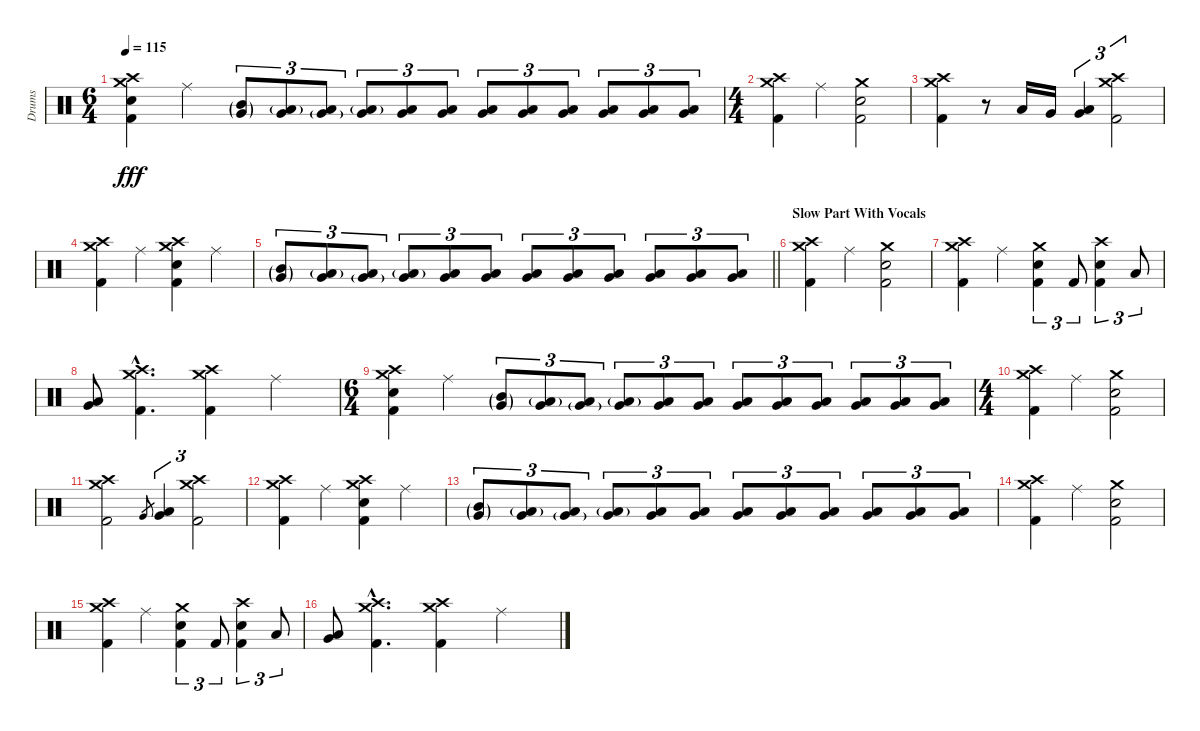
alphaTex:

\track ("Drums" "Drums") {instrument percussion}
\staff {score}
\articulation defaults
\ts (6 4)
\tempo 115
\clef neutral
\ks c
("Crash high (hit)" "Crash medium (hit)" "Electric Snare (hit)" "Kick (hit) 2").4{dy fff} "Ride (middle)".4 ("Mid Tom (hit)"{g} "Very Low Tom (hit)"{g}).8{tu (3 2)} ("Low Tom (hit)"{g} "Very Low Tom (hit)").8{tu (3 2)} ("Low Tom (hit)" "Very Low Tom (hit)"{g}).8{tu (3 2)} ("Low Tom (hit)"{g} "Very Low Tom (hit)").8{tu (3 2)} ("Low Tom (hit)" "Very Low Tom (hit)").8{tu (3 2)} ("Low Tom (hit)" "Very Low Tom (hit)").8{tu (3 2)} ("Low Tom (hit)" "Very Low Tom (hit)").8{tu (3 2)} ("Low Tom (hit)" "Very Low Tom (hit)").8{tu (3 2)} ("Low Tom (hit)" "Very Low Tom (hit)").8{tu (3 2)} ("Low Tom (hit)" "Very Low Tom (hit)").8{tu (3 2)} ("Low Tom (hit)" "Very Low Tom (hit)").8{tu (3 2)} ("Low Tom (hit)" "Very Low Tom (hit)").8{tu (3 2)} |
\ts (4 4)
("Crash high (hit)" "Crash medium (hit)" "Kick (hit) 2").4 "Ride (middle)".4 ("Crash medium (hit)" "Electric Snare (hit)" "Kick (hit) 2").2 |
("Crash high (hit)" "Crash medium (hit)" "Kick (hit) 2").4 r.8 "Low Tom (hit)".16 "Very Low Tom (hit)".16 ("Very Low Tom (hit)" "Low Tom (hit)").4{tu (3 2)} ("Crash high (hit)" "Crash medium (hit)" "Kick (hit) 2").2{tu (3 2)} |
("Crash high (hit)" "Crash medium (hit)" "Kick (hit) 2").4 "Ride (middle)".4 ("Crash high (hit)" "Crash medium (hit)" "Electric Snare (hit)" "Kick (hit) 2").4 "Ride (middle)".4 |
\barLineRight lightlight
("Mid Tom (hit)"{g} "Very Low Tom (hit)"{g}).8{tu (3 2)} ("Low Tom (hit)"{g} "Very Low Tom (hit)").8{tu (3 2)} ("Low Tom (hit)" "Very Low Tom (hit)"{g}).8{tu (3 2)} ("Low Tom (hit)"{g} "Very Low Tom (hit)").8{tu (3 2)} ("Low Tom (hit)" "Very Low Tom (hit)").8{tu (3 2)} ("Low Tom (hit)" "Very Low Tom (hit)").8{tu (3 2)} ("Low Tom (hit)" "Very Low Tom (hit)").8{tu (3 2)} ("Low Tom (hit)" "Very Low Tom (hit)").8{tu (3 2)} ("Low Tom (hit)" "Very Low Tom (hit)").8{tu (3 2)} ("Low Tom (hit)" "Very Low Tom (hit)").8{tu (3 2)} ("Low Tom (hit)" "Very Low Tom (hit)").8{tu (3 2)} ("Low Tom (hit)" "Very Low Tom (hit)").8{tu (3 2)} |
\section ("" "Slow Part With Vocals")
("Crash high (hit)" "Crash medium (hit)" "Kick (hit) 2").4 "Ride (middle)".4 ("Crash medium (hit)" "Electric Snare (hit)" "Kick (hit) 2").2 |
("Crash high (hit)" "Crash medium (hit)" "Kick (hit) 2").4 "Ride (middle)".4 ("Crash medium (hit)" "Electric Snare (hit)" "Kick (hit) 2").4{tu (3 2)} "Kick (hit) 2".8{tu (3 2)} ("Crash high (hit)" "Electric Snare (hit)" "Kick (hit) 2").4{tu (3 2)} "Low Tom (hit)".8{tu (3 2)} |
("Low Floor Tom (hit)" "Very Low Tom (hit)").8 ("Crash high (hit)"{hac} "Crash medium (hit)"{hac} "Kick (hit) 2"{hac}).4{d} ("Crash high (hit)" "Crash medium (hit)" "Kick (hit) 2").4 "Ride (middle)".4 |
\ts (6 4)
("Crash high (hit)" "Crash medium (hit)" "Electric Snare (hit)" "Kick (hit) 2").4 "Ride (middle)".4 ("Mid Tom (hit)"{g} "Very Low Tom (hit)"{g}).8{tu (3 2)} ("Low Tom (hit)"{g} "Very Low Tom (hit)").8{tu (3 2)} ("Low Tom (hit)" "Very Low Tom (hit)"{g}).8{tu (3 2)} ("Low Tom (hit)"{g} "Very Low Tom (hit)").8{tu (3 2)} ("Low Tom (hit)" "Very Low Tom (hit)").8{tu (3 2)} ("Low Tom (hit)" "Very Low Tom (hit)").8{tu (3 2)} ("Low Tom (hit)" "Very Low Tom (hit)").8{tu (3 2)} ("Low Tom (hit)" "Very Low Tom (hit)").8{tu (3 2)} ("Low Tom (hit)" "Very Low Tom (hit)").8{tu (3 2)} ("Low Tom (hit)" "Very Low Tom (hit)").8{tu (3 2)} ("Low Tom (hit)" "Very Low Tom (hit)").8{tu (3 2)} ("Low Tom (hit)" "Very Low Tom (hit)").8{tu (3 2)} |
\ts (4 4)
("Crash high (hit)" "Crash medium (hit)" "Kick (hit) 2").4 "Ride (middle)".4 ("Crash medium (hit)" "Electric Snare (hit)" "Kick (hit) 2").2 |
("Crash high (hit)" "Crash medium (hit)" "Kick (hit) 2").2 "Very Low Tom (hit)".8{gr} ("Very Low Tom (hit)" "Low Tom (hit)").4{tu (3 2)} ("Crash high (hit)" "Crash medium (hit)" "Kick (hit) 2").2{tu (3 2)} |
("Crash high (hit)" "Crash medium (hit)" "Kick (hit) 2").4 "Ride (middle)".4 ("Crash high (hit)" "Crash medium (hit)" "Electric Snare (hit)" "Kick (hit) 2").4 "Ride (middle)".4 |
("Mid Tom (hit)"{g} "Very Low Tom (hit)"{g}).8{tu (3 2)} ("Low Tom (hit)"{g} "Very Low Tom (hit)").8{tu (3 2)} ("Low Tom (hit)" "Very Low Tom (hit)"{g}).8{tu (3 2)} ("Low Tom (hit)"{g} "Very Low Tom (hit)").8{tu (3 2)} ("Low Tom (hit)" "Very Low Tom (hit)").8{tu (3 2)} ("Low Tom (hit)" "Very Low Tom (hit)").8{tu (3 2)} ("Low Tom (hit)" "Very Low Tom (hit)").8{tu (3 2)} ("Low Tom (hit)" "Very Low Tom (hit)").8{tu (3 2)} ("Low Tom (hit)" "Very Low Tom (hit)").8{tu (3 2)} ("Low Tom (hit)" "Very Low Tom (hit)").8{tu (3 2)} ("Low Tom (hit)" "Very Low Tom (hit)").8{tu (3 2)} ("Low Tom (hit)" "Very Low Tom (hit)").8{tu (3 2)} |
("Crash high (hit)" "Crash medium (hit)" "Kick (hit) 2").4 "Ride (middle)".4 ("Crash medium (hit)" "Electric Snare (hit)" "Kick (hit) 2").2 |
("Crash high (hit)" "Crash medium (hit)" "Kick (hit) 2").4 "Ride (middle)".4 ("Crash medium (hit)" "Electric Snare (hit)" "Kick (hit) 2").4{tu (3 2)} "Kick (hit) 2".8{tu (3 2)} ("Crash high (hit)" "Electric Snare (hit)" "Kick (hit) 2").4{tu (3 2)} "Low Tom (hit)".8{tu (3 2)} |
("Low Floor Tom (hit)" "Very Low Tom (hit)").8 ("Crash high (hit)"{hac} "Crash medium (hit)"{hac} "Kick (hit) 2"{hac}).4{d} ("Crash high (hit)" "Crash medium (hit)" "Kick (hit) 2").4 "Ride (middle)".4
